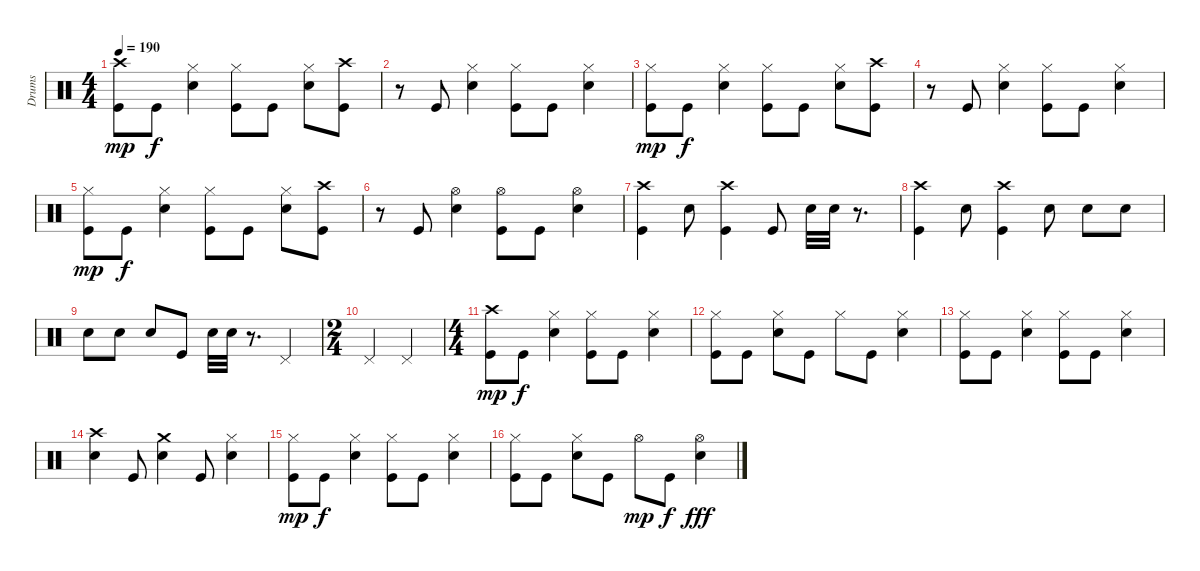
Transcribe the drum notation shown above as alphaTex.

\track ("Drums" "Drums") {instrument percussion}
\staff {score}
\articulation defaults
\ts (4 4)
\tempo 190
\clef neutral
\ks c
("Crash high (hit)" "Kick (hit)").8{dy mp} "Kick (hit)".8{dy f} ("Hi-Hat (closed)" "Snare (hit) 2").4 ("Hi-Hat (closed)" "Kick (hit)").8 "Kick (hit)".8 ("Hi-Hat (closed)" "Snare (hit) 2").8 ("Crash high (hit)" "Kick (hit)").8 |
r.8 "Kick (hit)".8 ("Hi-Hat (closed)" "Snare (hit) 2").4 ("Hi-Hat (closed)" "Kick (hit)").8 "Kick (hit)".8 ("Hi-Hat (closed)" "Snare (hit) 2").4 |
("Hi-Hat (closed)" "Kick (hit)").8{dy mp} "Kick (hit)".8{dy f} ("Hi-Hat (closed)" "Snare (hit) 2").4 ("Hi-Hat (closed)" "Kick (hit)").8 "Kick (hit)".8 ("Hi-Hat (closed)" "Snare (hit) 2").8 ("Crash high (hit)" "Kick (hit)").8 |
r.8 "Kick (hit)".8 ("Hi-Hat (closed)" "Snare (hit) 2").4 ("Hi-Hat (closed)" "Kick (hit)").8 "Kick (hit)".8 ("Hi-Hat (closed)" "Snare (hit) 2").4 |
("Hi-Hat (closed)" "Kick (hit)").8{dy mp} "Kick (hit)".8{dy f} ("Hi-Hat (closed)" "Snare (hit) 2").4 ("Hi-Hat (closed)" "Kick (hit)").8 "Kick (hit)".8 ("Hi-Hat (closed)" "Snare (hit) 2").8 ("Crash high (hit)" "Kick (hit)").8 |
r.8 "Kick (hit)".8 ("Hi-Hat (open)" "Snare (hit) 2").4 ("Hi-Hat (open)" "Kick (hit)").8 "Kick (hit)".8 ("Hi-Hat (open)" "Snare (hit) 2").4 |
("Crash high (hit)" "Kick (hit)").4 "Snare (hit) 2".8 ("Crash high (hit)" "Kick (hit)").4 "Kick (hit)".8 "Snare (hit) 2".32 "Snare (hit) 2".32 r.8{d} |
("Crash high (hit)" "Kick (hit)").4 "Snare (hit) 2".8 ("Crash high (hit)" "Kick (hit)").4 "Snare (hit) 2".8 "Snare (hit) 2".8 "Snare (hit) 2".8 |
"Snare (hit) 2".8 "Snare (hit) 2".8 "Snare (hit) 2".8 "Kick (hit)".8 "Snare (hit) 2".32 "Snare (hit) 2".32 r.8{d} "Pedal Hi-Hat (hit)".4 |
\ts (2 4)
"Pedal Hi-Hat (hit)".4 "Pedal Hi-Hat (hit)".4 |
\ts (4 4)
("Crash high (hit)" "Kick (hit)").8{dy mp} "Kick (hit)".8{dy f} ("Hi-Hat (closed)" "Snare (hit) 2").4 ("Hi-Hat (closed)" "Kick (hit)").8 "Kick (hit)".8 ("Hi-Hat (closed)" "Snare (hit) 2").4 |
("Hi-Hat (closed)" "Kick (hit)").8 "Kick (hit)".8 ("Hi-Hat (closed)" "Snare (hit) 2").8 "Kick (hit)".8 "Hi-Hat (closed)".8 "Kick (hit)".8 ("Hi-Hat (closed)" "Snare (hit) 2").4 |
("Hi-Hat (closed)" "Kick (hit)").8 "Kick (hit)".8 ("Hi-Hat (closed)" "Snare (hit) 2").4 ("Hi-Hat (closed)" "Kick (hit)").8 "Kick (hit)".8 ("Hi-Hat (closed)" "Snare (hit) 2").4 |
("Crash high (hit)" "Snare (hit) 2").4 "Kick (hit)".8 ("Crash medium (hit)" "Snare (hit) 2").4 "Kick (hit)".8 ("Hi-Hat (closed)" "Snare (hit) 2").4 |
("Hi-Hat (closed)" "Kick (hit)").8{dy mp} "Kick (hit)".8{dy f} ("Hi-Hat (closed)" "Snare (hit) 2").4 ("Hi-Hat (closed)" "Kick (hit)").8 "Kick (hit)".8 ("Hi-Hat (closed)" "Snare (hit) 2").4 |
("Hi-Hat (closed)" "Kick (hit)").8 "Kick (hit)".8 ("Hi-Hat (closed)" "Snare (hit) 2").8 "Kick (hit)".8 "Hi-Hat (open)".8{dy mp} "Kick (hit)".8{dy f} ("Hi-Hat (open)" "Snare (hit) 2").4{dy fff}
